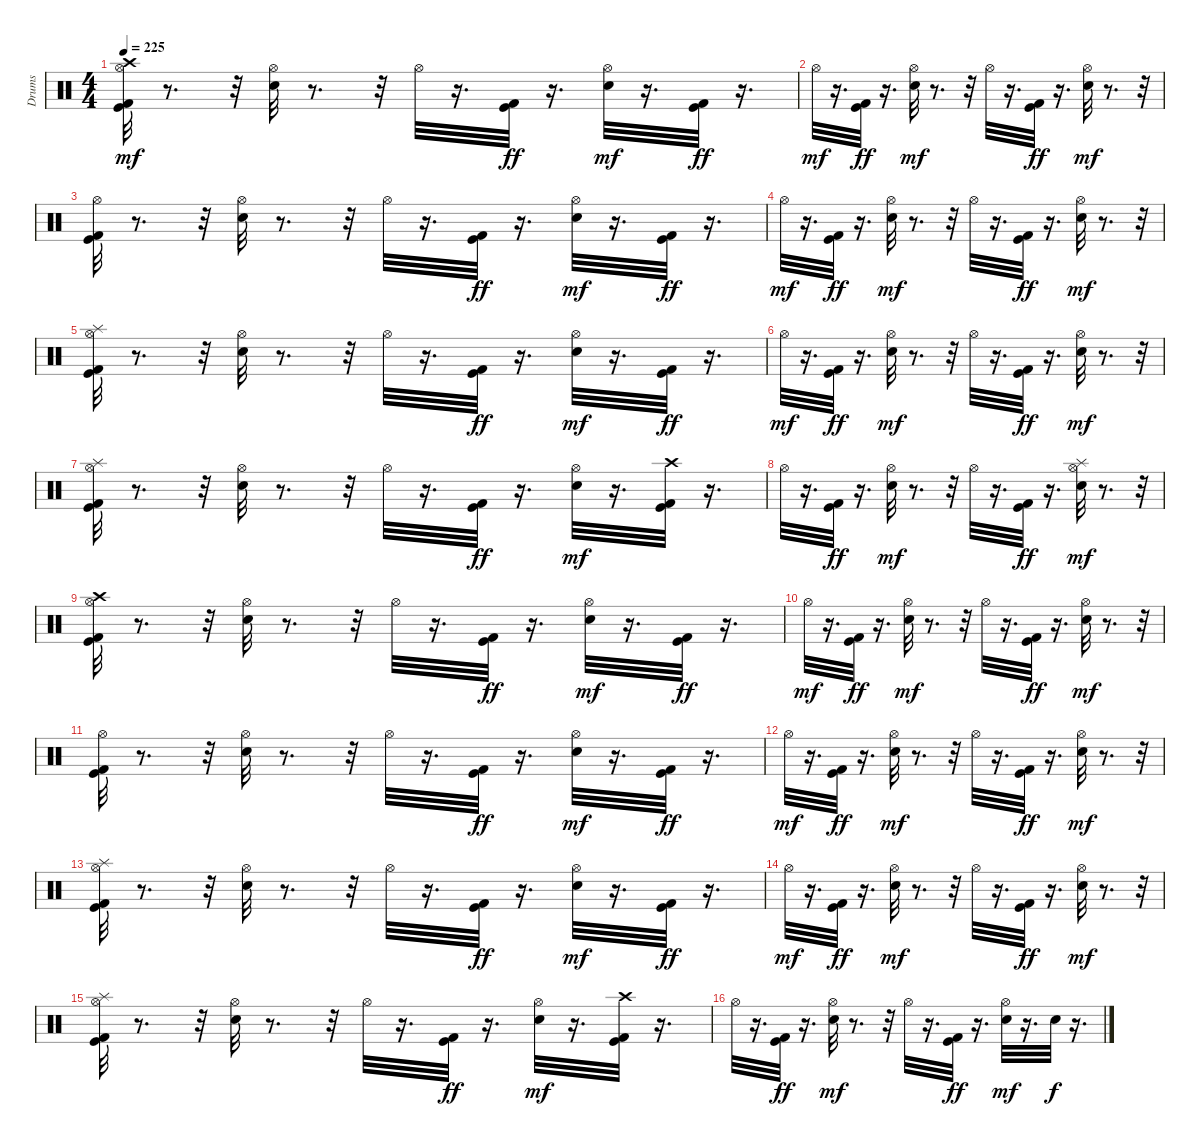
\track ("Drums" "Drums") {instrument percussion}
\staff {score}
\articulation defaults
\ts (4 4)
\tempo 225
\clef neutral
\ks c
("Kick (hit) 2" "Kick (hit)" "Crash high (hit)" "Hi-Hat (open)").32{dy mf} r.8{d} r.32 ("Snare (hit) 2" "Hi-Hat (open)").32 r.8{d} r.32 "Hi-Hat (open)".32 r.16{d} ("Kick (hit) 2" "Kick (hit)").32{dy ff} r.16{d} ("Hi-Hat (open)" "Snare (hit) 2").32{dy mf} r.16{d} ("Kick (hit) 2" "Kick (hit)").32{dy ff} r.16{d} |
"Hi-Hat (open)".32{dy mf} r.16{d} ("Kick (hit) 2" "Kick (hit)").32{dy ff} r.16{d} ("Snare (hit) 2" "Hi-Hat (open)").32{dy mf} r.8{d} r.32 "Hi-Hat (open)".32 r.16{d} ("Kick (hit) 2" "Kick (hit)").32{dy ff} r.16{d} ("Hi-Hat (open)" "Snare (hit) 2").32{dy mf} r.8{d} r.32 |
("Kick (hit) 2" "Kick (hit)" "Hi-Hat (open)").32 r.8{d} r.32 ("Snare (hit) 2" "Hi-Hat (open)").32 r.8{d} r.32 "Hi-Hat (open)".32 r.16{d} ("Kick (hit) 2" "Kick (hit)").32{dy ff} r.16{d} ("Hi-Hat (open)" "Snare (hit) 2").32{dy mf} r.16{d} ("Kick (hit) 2" "Kick (hit)").32{dy ff} r.16{d} |
"Hi-Hat (open)".32{dy mf} r.16{d} ("Kick (hit) 2" "Kick (hit)").32{dy ff} r.16{d} ("Snare (hit) 2" "Hi-Hat (open)").32{dy mf} r.8{d} r.32 "Hi-Hat (open)".32 r.16{d} ("Kick (hit) 2" "Kick (hit)").32{dy ff} r.16{d} ("Hi-Hat (open)" "Snare (hit) 2").32{dy mf} r.8{d} r.32 |
("Kick (hit) 2" "Kick (hit)" "Hi-Hat (open)" "Splash (hit)").32 r.8{d} r.32 ("Snare (hit) 2" "Hi-Hat (open)").32 r.8{d} r.32 "Hi-Hat (open)".32 r.16{d} ("Kick (hit) 2" "Kick (hit)").32{dy ff} r.16{d} ("Hi-Hat (open)" "Snare (hit) 2").32{dy mf} r.16{d} ("Kick (hit) 2" "Kick (hit)").32{dy ff} r.16{d} |
"Hi-Hat (open)".32{dy mf} r.16{d} ("Kick (hit) 2" "Kick (hit)").32{dy ff} r.16{d} ("Snare (hit) 2" "Hi-Hat (open)").32{dy mf} r.8{d} r.32 "Hi-Hat (open)".32 r.16{d} ("Kick (hit) 2" "Kick (hit)").32{dy ff} r.16{d} ("Hi-Hat (open)" "Snare (hit) 2").32{dy mf} r.8{d} r.32 |
("Kick (hit) 2" "Kick (hit)" "Hi-Hat (open)" "Splash (hit)").32 r.8{d} r.32 ("Snare (hit) 2" "Hi-Hat (open)").32 r.8{d} r.32 "Hi-Hat (open)".32 r.16{d} ("Kick (hit) 2" "Kick (hit)").32{dy ff} r.16{d} ("Hi-Hat (open)" "Snare (hit) 2").32{dy mf} r.16{d} ("Kick (hit) 2" "Kick (hit)" "Crash high (hit)").32 r.16{d} |
"Hi-Hat (open)".32 r.16{d} ("Kick (hit) 2" "Kick (hit)").32{dy ff} r.16{d} ("Snare (hit) 2" "Hi-Hat (open)").32{dy mf} r.8{d} r.32 "Hi-Hat (open)".32 r.16{d} ("Kick (hit) 2" "Kick (hit)").32{dy ff} r.16{d} ("Hi-Hat (open)" "Snare (hit) 2" "Splash (hit)").32{dy mf} r.8{d} r.32 |
("Kick (hit) 2" "Kick (hit)" "Crash high (hit)" "Hi-Hat (open)").32 r.8{d} r.32 ("Snare (hit) 2" "Hi-Hat (open)").32 r.8{d} r.32 "Hi-Hat (open)".32 r.16{d} ("Kick (hit) 2" "Kick (hit)").32{dy ff} r.16{d} ("Hi-Hat (open)" "Snare (hit) 2").32{dy mf} r.16{d} ("Kick (hit) 2" "Kick (hit)").32{dy ff} r.16{d} |
"Hi-Hat (open)".32{dy mf} r.16{d} ("Kick (hit) 2" "Kick (hit)").32{dy ff} r.16{d} ("Snare (hit) 2" "Hi-Hat (open)").32{dy mf} r.8{d} r.32 "Hi-Hat (open)".32 r.16{d} ("Kick (hit) 2" "Kick (hit)").32{dy ff} r.16{d} ("Hi-Hat (open)" "Snare (hit) 2").32{dy mf} r.8{d} r.32 |
("Kick (hit) 2" "Kick (hit)" "Hi-Hat (open)").32 r.8{d} r.32 ("Snare (hit) 2" "Hi-Hat (open)").32 r.8{d} r.32 "Hi-Hat (open)".32 r.16{d} ("Kick (hit) 2" "Kick (hit)").32{dy ff} r.16{d} ("Hi-Hat (open)" "Snare (hit) 2").32{dy mf} r.16{d} ("Kick (hit) 2" "Kick (hit)").32{dy ff} r.16{d} |
"Hi-Hat (open)".32{dy mf} r.16{d} ("Kick (hit) 2" "Kick (hit)").32{dy ff} r.16{d} ("Snare (hit) 2" "Hi-Hat (open)").32{dy mf} r.8{d} r.32 "Hi-Hat (open)".32 r.16{d} ("Kick (hit) 2" "Kick (hit)").32{dy ff} r.16{d} ("Hi-Hat (open)" "Snare (hit) 2").32{dy mf} r.8{d} r.32 |
("Kick (hit) 2" "Kick (hit)" "Hi-Hat (open)" "Splash (hit)").32 r.8{d} r.32 ("Snare (hit) 2" "Hi-Hat (open)").32 r.8{d} r.32 "Hi-Hat (open)".32 r.16{d} ("Kick (hit) 2" "Kick (hit)").32{dy ff} r.16{d} ("Hi-Hat (open)" "Snare (hit) 2").32{dy mf} r.16{d} ("Kick (hit) 2" "Kick (hit)").32{dy ff} r.16{d} |
"Hi-Hat (open)".32{dy mf} r.16{d} ("Kick (hit) 2" "Kick (hit)").32{dy ff} r.16{d} ("Snare (hit) 2" "Hi-Hat (open)").32{dy mf} r.8{d} r.32 "Hi-Hat (open)".32 r.16{d} ("Kick (hit) 2" "Kick (hit)").32{dy ff} r.16{d} ("Hi-Hat (open)" "Snare (hit) 2").32{dy mf} r.8{d} r.32 |
("Kick (hit) 2" "Kick (hit)" "Hi-Hat (open)" "Splash (hit)").32 r.8{d} r.32 ("Snare (hit) 2" "Hi-Hat (open)").32 r.8{d} r.32 "Hi-Hat (open)".32 r.16{d} ("Kick (hit) 2" "Kick (hit)").32{dy ff} r.16{d} ("Hi-Hat (open)" "Snare (hit) 2").32{dy mf} r.16{d} ("Kick (hit) 2" "Kick (hit)" "Crash high (hit)").32 r.16{d} |
"Hi-Hat (open)".32 r.16{d} ("Kick (hit) 2" "Kick (hit)").32{dy ff} r.16{d} ("Snare (hit) 2" "Hi-Hat (open)").32{dy mf} r.8{d} r.32 "Hi-Hat (open)".32 r.16{d} ("Kick (hit) 2" "Kick (hit)").32{dy ff} r.16{d} ("Hi-Hat (open)" "Snare (hit) 2").32{dy mf} r.16{d} "Snare (hit) 2".32{dy f} r.16{d}
